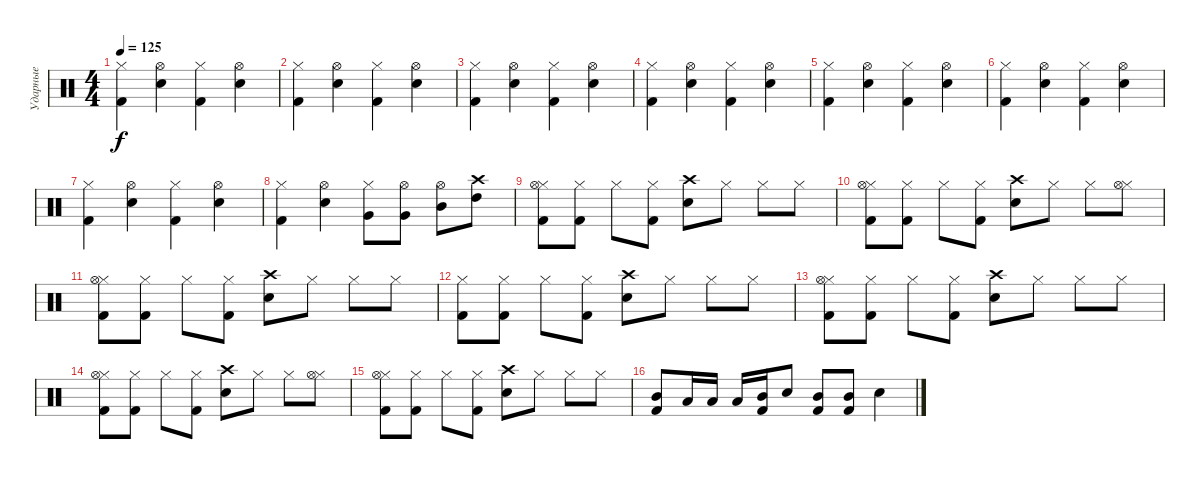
\track ("Ударные" "Ударные") {instrument percussion}
\staff {score}
\articulation defaults
\ts (4 4)
\tempo 125
\clef neutral
\ks c
("Hi-Hat (closed)" "Kick (hit) 2").4{dy f} ("Hi-Hat (open)" "Electric Snare (hit)").4 ("Hi-Hat (closed)" "Kick (hit) 2").4 ("Hi-Hat (open)" "Electric Snare (hit)").4 |
("Hi-Hat (closed)" "Kick (hit) 2").4 ("Hi-Hat (open)" "Electric Snare (hit)").4 ("Hi-Hat (closed)" "Kick (hit) 2").4 ("Hi-Hat (open)" "Electric Snare (hit)").4 |
("Hi-Hat (closed)" "Kick (hit) 2").4 ("Hi-Hat (open)" "Electric Snare (hit)").4 ("Hi-Hat (closed)" "Kick (hit) 2").4 ("Hi-Hat (open)" "Electric Snare (hit)").4 |
("Hi-Hat (closed)" "Kick (hit) 2").4 ("Hi-Hat (open)" "Electric Snare (hit)").4 ("Hi-Hat (closed)" "Kick (hit) 2").4 ("Hi-Hat (open)" "Electric Snare (hit)").4 |
("Hi-Hat (closed)" "Kick (hit) 2").4 ("Hi-Hat (open)" "Electric Snare (hit)").4 ("Hi-Hat (closed)" "Kick (hit) 2").4 ("Hi-Hat (open)" "Electric Snare (hit)").4 |
("Hi-Hat (closed)" "Kick (hit) 2").4 ("Hi-Hat (open)" "Electric Snare (hit)").4 ("Hi-Hat (closed)" "Kick (hit) 2").4 ("Hi-Hat (open)" "Electric Snare (hit)").4 |
("Hi-Hat (closed)" "Kick (hit) 2").4 ("Hi-Hat (open)" "Electric Snare (hit)").4 ("Hi-Hat (closed)" "Kick (hit) 2").4 ("Hi-Hat (open)" "Electric Snare (hit)").4 |
("Hi-Hat (closed)" "Kick (hit) 2").4 ("Hi-Hat (open)" "Electric Snare (hit)").4 ("Hi-Hat (closed)" "Very Low Tom (hit)").8 ("Hi-Hat (open)" "Very Low Tom (hit)").8 ("Hi-Hat (open)" "Mid Tom (hit)").8 ("Crash high (hit)" "High Tom (hit)").8 |
("Kick (hit) 2" "Hi-Hat (closed)" "Hi-Hat (open)").8 ("Kick (hit) 2" "Hi-Hat (closed)").8 "Hi-Hat (closed)".8 ("Kick (hit) 2" "Hi-Hat (closed)").8 ("Electric Snare (hit)" "Crash high (hit)").8 "Hi-Hat (closed)".8 "Hi-Hat (closed)".8 "Hi-Hat (closed)".8 |
("Kick (hit) 2" "Hi-Hat (closed)" "Hi-Hat (open)").8 ("Kick (hit) 2" "Hi-Hat (closed)").8 "Hi-Hat (closed)".8 ("Kick (hit) 2" "Hi-Hat (closed)").8 ("Electric Snare (hit)" "Crash high (hit)").8 "Hi-Hat (closed)".8 "Hi-Hat (closed)".8 ("Hi-Hat (closed)" "Hi-Hat (open)").8 |
("Kick (hit) 2" "Hi-Hat (closed)" "Hi-Hat (open)").8 ("Kick (hit) 2" "Hi-Hat (closed)").8 "Hi-Hat (closed)".8 ("Kick (hit) 2" "Hi-Hat (closed)").8 ("Electric Snare (hit)" "Crash high (hit)").8 "Hi-Hat (closed)".8 "Hi-Hat (closed)".8 "Hi-Hat (closed)".8 |
("Kick (hit) 2" "Hi-Hat (closed)").8 ("Kick (hit) 2" "Hi-Hat (closed)").8 "Hi-Hat (closed)".8 ("Kick (hit) 2" "Hi-Hat (closed)").8 ("Electric Snare (hit)" "Crash high (hit)").8 "Hi-Hat (closed)".8 "Hi-Hat (closed)".8 "Hi-Hat (closed)".8 |
("Kick (hit) 2" "Hi-Hat (closed)" "Hi-Hat (open)").8 ("Kick (hit) 2" "Hi-Hat (closed)").8 "Hi-Hat (closed)".8 ("Kick (hit) 2" "Hi-Hat (closed)").8 ("Electric Snare (hit)" "Crash high (hit)").8 "Hi-Hat (closed)".8 "Hi-Hat (closed)".8 "Hi-Hat (closed)".8 |
("Kick (hit) 2" "Hi-Hat (closed)" "Hi-Hat (open)").8 ("Kick (hit) 2" "Hi-Hat (closed)").8 "Hi-Hat (closed)".8 ("Kick (hit) 2" "Hi-Hat (closed)").8 ("Electric Snare (hit)" "Crash high (hit)").8 "Hi-Hat (closed)".8 "Hi-Hat (closed)".8 ("Hi-Hat (closed)" "Hi-Hat (open)").8 |
("Kick (hit) 2" "Hi-Hat (closed)" "Hi-Hat (open)").8 ("Kick (hit) 2" "Hi-Hat (closed)").8 "Hi-Hat (closed)".8 ("Kick (hit) 2" "Hi-Hat (closed)").8 ("Electric Snare (hit)" "Crash high (hit)").8 "Hi-Hat (closed)".8 "Hi-Hat (closed)".8 "Hi-Hat (closed)".8 |
("Mid Tom (hit)" "Kick (hit) 2").8 "Low Tom (hit)".16 "Low Tom (hit)".16 "Low Tom (hit)".16 ("Mid Tom (hit)" "Kick (hit) 2").16 "Electric Snare (hit)".8 ("Mid Tom (hit)" "Kick (hit) 2").8 ("Mid Tom (hit)" "Kick (hit) 2").8 "Electric Snare (hit)".4
